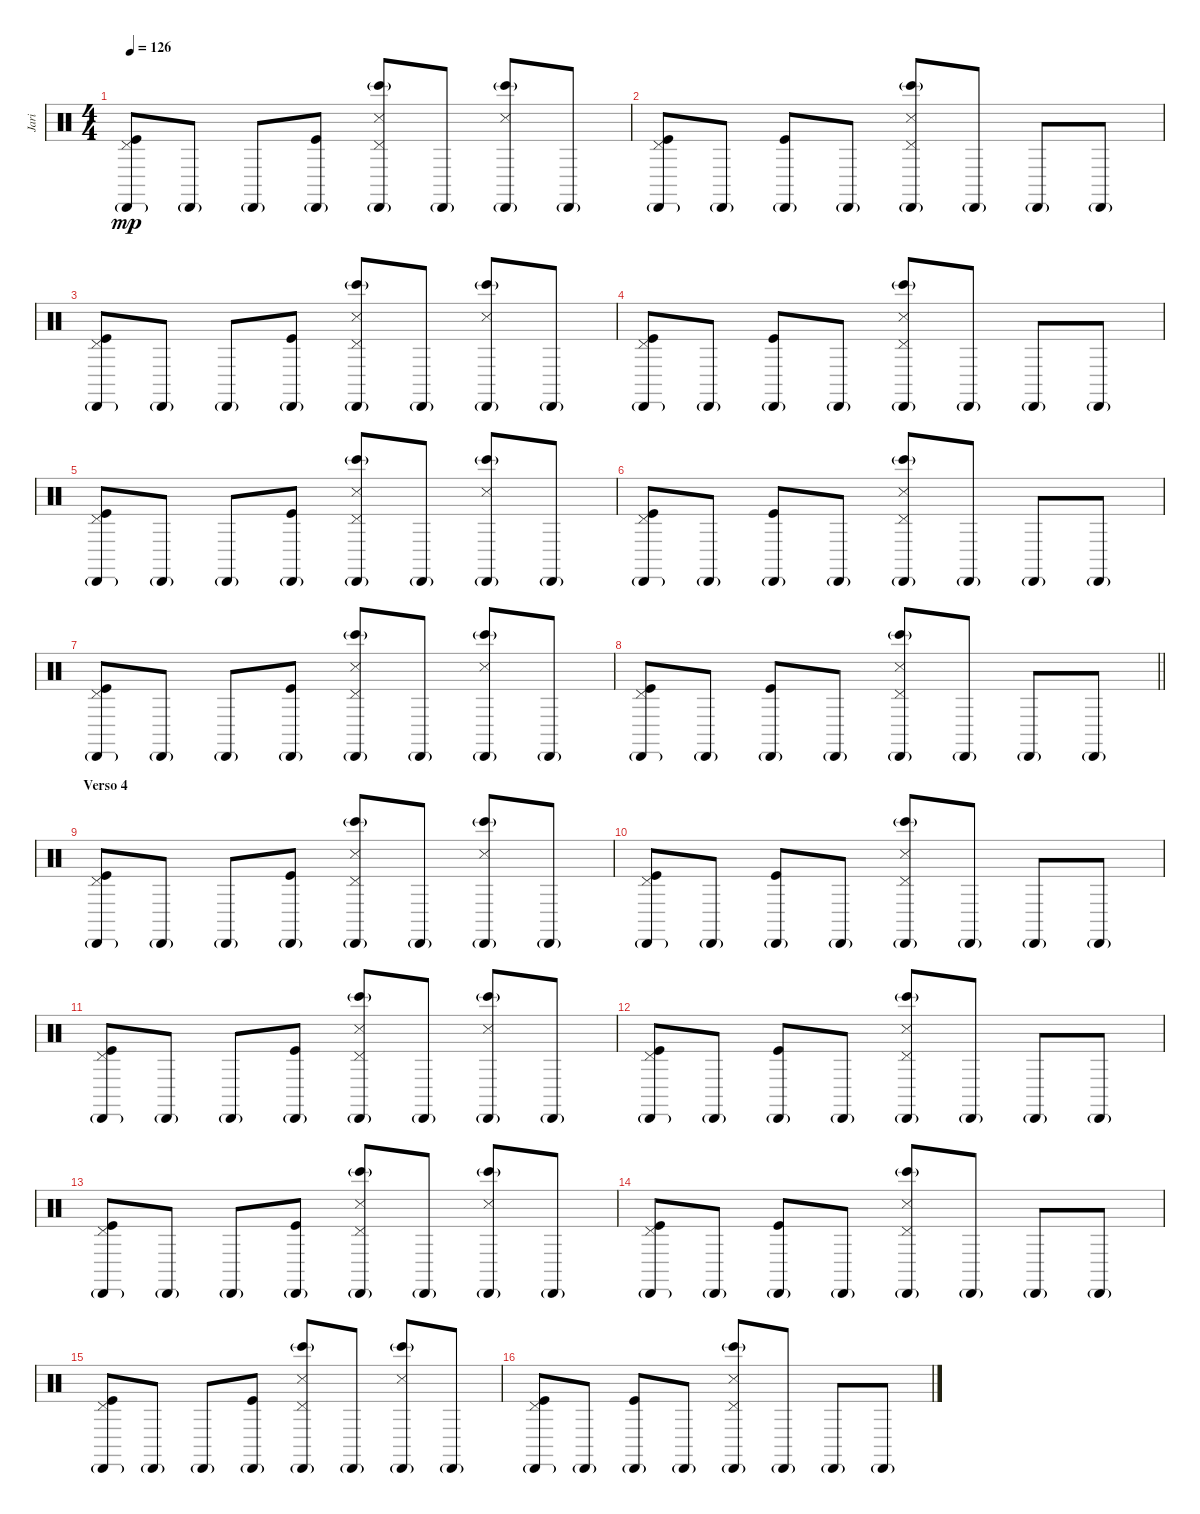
\track ("Jari" "Jari") {instrument percussion}
\staff {score}
\articulation defaults
\ts (4 4)
\tempo 126
\clef neutral
\ks c
("Pedal Hi-Hat (hit)" "Cabasa (hit)"{g} "Kick (hit)").8{dy mp} "Cabasa (hit)"{g}.8 "Cabasa (hit)"{g}.8 ("Cabasa (hit)"{g} "Kick (hit)").8 ("Pedal Hi-Hat (hit)" "Cabasa (hit)"{g} "Bongo High (hit)"{g} "Metronome (hit)").8 "Cabasa (hit)"{g}.8 ("Cabasa (hit)"{g} "Bongo High (hit)"{g} "Metronome (hit)").8 "Cabasa (hit)"{g}.8 |
("Pedal Hi-Hat (hit)" "Cabasa (hit)"{g} "Kick (hit)").8 "Cabasa (hit)"{g}.8 ("Cabasa (hit)"{g} "Kick (hit)").8 "Cabasa (hit)"{g}.8 ("Pedal Hi-Hat (hit)" "Cabasa (hit)"{g} "Metronome (hit)" "Bongo High (hit)"{g}).8 "Cabasa (hit)"{g}.8 "Cabasa (hit)"{g}.8 "Cabasa (hit)"{g}.8 |
("Pedal Hi-Hat (hit)" "Cabasa (hit)"{g} "Kick (hit)").8 "Cabasa (hit)"{g}.8 "Cabasa (hit)"{g}.8 ("Cabasa (hit)"{g} "Kick (hit)").8 ("Pedal Hi-Hat (hit)" "Cabasa (hit)"{g} "Bongo High (hit)"{g} "Metronome (hit)").8 "Cabasa (hit)"{g}.8 ("Cabasa (hit)"{g} "Bongo High (hit)"{g} "Metronome (hit)").8 "Cabasa (hit)"{g}.8 |
("Pedal Hi-Hat (hit)" "Cabasa (hit)"{g} "Kick (hit)").8 "Cabasa (hit)"{g}.8 ("Cabasa (hit)"{g} "Kick (hit)").8 "Cabasa (hit)"{g}.8 ("Pedal Hi-Hat (hit)" "Cabasa (hit)"{g} "Metronome (hit)" "Bongo High (hit)"{g}).8 "Cabasa (hit)"{g}.8 "Cabasa (hit)"{g}.8 "Cabasa (hit)"{g}.8 |
("Pedal Hi-Hat (hit)" "Cabasa (hit)"{g} "Kick (hit)").8 "Cabasa (hit)"{g}.8 "Cabasa (hit)"{g}.8 ("Cabasa (hit)"{g} "Kick (hit)").8 ("Pedal Hi-Hat (hit)" "Cabasa (hit)"{g} "Bongo High (hit)"{g} "Metronome (hit)").8 "Cabasa (hit)"{g}.8 ("Cabasa (hit)"{g} "Bongo High (hit)"{g} "Metronome (hit)").8 "Cabasa (hit)"{g}.8 |
("Pedal Hi-Hat (hit)" "Cabasa (hit)"{g} "Kick (hit)").8 "Cabasa (hit)"{g}.8 ("Cabasa (hit)"{g} "Kick (hit)").8 "Cabasa (hit)"{g}.8 ("Pedal Hi-Hat (hit)" "Cabasa (hit)"{g} "Metronome (hit)" "Bongo High (hit)"{g}).8 "Cabasa (hit)"{g}.8 "Cabasa (hit)"{g}.8 "Cabasa (hit)"{g}.8 |
("Pedal Hi-Hat (hit)" "Cabasa (hit)"{g} "Kick (hit)").8 "Cabasa (hit)"{g}.8 "Cabasa (hit)"{g}.8 ("Cabasa (hit)"{g} "Kick (hit)").8 ("Pedal Hi-Hat (hit)" "Cabasa (hit)"{g} "Bongo High (hit)"{g} "Metronome (hit)").8 "Cabasa (hit)"{g}.8 ("Cabasa (hit)"{g} "Bongo High (hit)"{g} "Metronome (hit)").8 "Cabasa (hit)"{g}.8 |
\barLineRight lightlight
("Pedal Hi-Hat (hit)" "Cabasa (hit)"{g} "Kick (hit)").8 "Cabasa (hit)"{g}.8 ("Cabasa (hit)"{g} "Kick (hit)").8 "Cabasa (hit)"{g}.8 ("Pedal Hi-Hat (hit)" "Cabasa (hit)"{g} "Metronome (hit)" "Bongo High (hit)"{g}).8 "Cabasa (hit)"{g}.8 "Cabasa (hit)"{g}.8 "Cabasa (hit)"{g}.8 |
\section ("" "Verso 4")
("Pedal Hi-Hat (hit)" "Cabasa (hit)"{g} "Kick (hit)").8 "Cabasa (hit)"{g}.8 "Cabasa (hit)"{g}.8 ("Cabasa (hit)"{g} "Kick (hit)").8 ("Pedal Hi-Hat (hit)" "Cabasa (hit)"{g} "Bongo High (hit)"{g} "Metronome (hit)").8 "Cabasa (hit)"{g}.8 ("Cabasa (hit)"{g} "Bongo High (hit)"{g} "Metronome (hit)").8 "Cabasa (hit)"{g}.8 |
("Pedal Hi-Hat (hit)" "Cabasa (hit)"{g} "Kick (hit)").8 "Cabasa (hit)"{g}.8 ("Cabasa (hit)"{g} "Kick (hit)").8 "Cabasa (hit)"{g}.8 ("Pedal Hi-Hat (hit)" "Cabasa (hit)"{g} "Metronome (hit)" "Bongo High (hit)"{g}).8 "Cabasa (hit)"{g}.8 "Cabasa (hit)"{g}.8 "Cabasa (hit)"{g}.8 |
("Pedal Hi-Hat (hit)" "Cabasa (hit)"{g} "Kick (hit)").8 "Cabasa (hit)"{g}.8 "Cabasa (hit)"{g}.8 ("Cabasa (hit)"{g} "Kick (hit)").8 ("Pedal Hi-Hat (hit)" "Cabasa (hit)"{g} "Bongo High (hit)"{g} "Metronome (hit)").8 "Cabasa (hit)"{g}.8 ("Cabasa (hit)"{g} "Bongo High (hit)"{g} "Metronome (hit)").8 "Cabasa (hit)"{g}.8 |
("Pedal Hi-Hat (hit)" "Cabasa (hit)"{g} "Kick (hit)").8 "Cabasa (hit)"{g}.8 ("Cabasa (hit)"{g} "Kick (hit)").8 "Cabasa (hit)"{g}.8 ("Pedal Hi-Hat (hit)" "Cabasa (hit)"{g} "Metronome (hit)" "Bongo High (hit)"{g}).8 "Cabasa (hit)"{g}.8 "Cabasa (hit)"{g}.8 "Cabasa (hit)"{g}.8 |
("Pedal Hi-Hat (hit)" "Cabasa (hit)"{g} "Kick (hit)").8 "Cabasa (hit)"{g}.8 "Cabasa (hit)"{g}.8 ("Cabasa (hit)"{g} "Kick (hit)").8 ("Pedal Hi-Hat (hit)" "Cabasa (hit)"{g} "Bongo High (hit)"{g} "Metronome (hit)").8 "Cabasa (hit)"{g}.8 ("Cabasa (hit)"{g} "Bongo High (hit)"{g} "Metronome (hit)").8 "Cabasa (hit)"{g}.8 |
("Pedal Hi-Hat (hit)" "Cabasa (hit)"{g} "Kick (hit)").8 "Cabasa (hit)"{g}.8 ("Cabasa (hit)"{g} "Kick (hit)").8 "Cabasa (hit)"{g}.8 ("Pedal Hi-Hat (hit)" "Cabasa (hit)"{g} "Metronome (hit)" "Bongo High (hit)"{g}).8 "Cabasa (hit)"{g}.8 "Cabasa (hit)"{g}.8 "Cabasa (hit)"{g}.8 |
("Pedal Hi-Hat (hit)" "Cabasa (hit)"{g} "Kick (hit)").8 "Cabasa (hit)"{g}.8 "Cabasa (hit)"{g}.8 ("Cabasa (hit)"{g} "Kick (hit)").8 ("Pedal Hi-Hat (hit)" "Cabasa (hit)"{g} "Bongo High (hit)"{g} "Metronome (hit)").8 "Cabasa (hit)"{g}.8 ("Cabasa (hit)"{g} "Bongo High (hit)"{g} "Metronome (hit)").8 "Cabasa (hit)"{g}.8 |
("Pedal Hi-Hat (hit)" "Cabasa (hit)"{g} "Kick (hit)").8 "Cabasa (hit)"{g}.8 ("Cabasa (hit)"{g} "Kick (hit)").8 "Cabasa (hit)"{g}.8 ("Pedal Hi-Hat (hit)" "Cabasa (hit)"{g} "Metronome (hit)" "Bongo High (hit)"{g}).8 "Cabasa (hit)"{g}.8 "Cabasa (hit)"{g}.8 "Cabasa (hit)"{g}.8
